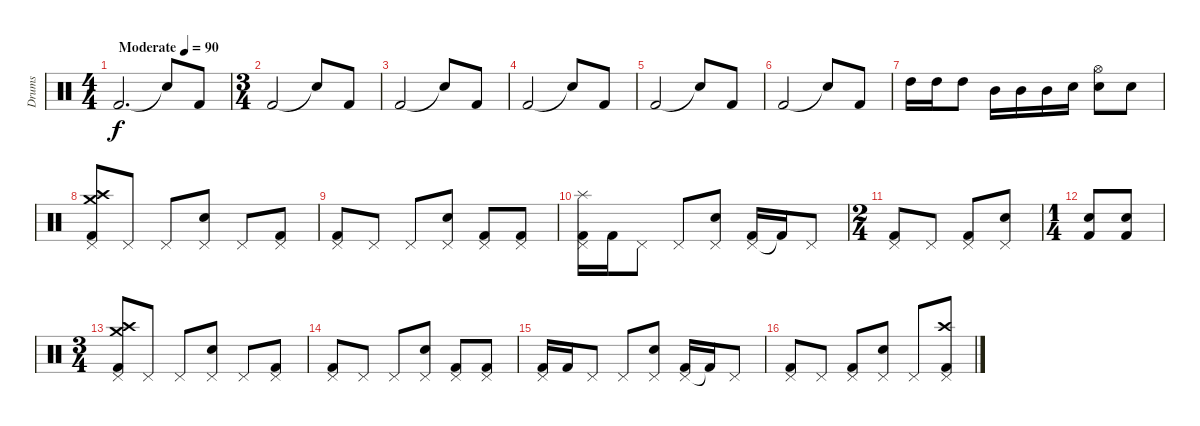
\track ("Drums" "Drums") {instrument percussion}
\staff {score}
\articulation defaults
\ts (4 4)
\tempo (90 "Moderate")
\clef neutral
\ks c "Kick (hit) 2".2{d dy f} "Snare (hit)"{t}.8 "Kick (hit) 2".8
|
\ts (3 4)
"Kick (hit) 2".2 "Snare (hit)"{t}.8 "Kick (hit) 2".8 |
"Kick (hit) 2".2 "Snare (hit)"{t}.8 "Kick (hit) 2".8 |
"Kick (hit) 2".2 "Snare (hit)"{t}.8 "Kick (hit) 2".8 |
"Kick (hit) 2".2 "Snare (hit)"{t}.8 "Kick (hit) 2".8 |
"Kick (hit) 2".2 "Snare (hit)"{t}.8 "Kick (hit) 2".8 |
"High Tom (hit)".16 "High Tom (hit)".16 "High Tom (hit)".8 "Mid Tom (hit)".16 "Mid Tom (hit)".16 "Mid Tom (hit)".16 "Electric Snare (hit)".16 ("Hi-Hat (open)" "Electric Snare (hit)").8 "Electric Snare (hit)".8 |
("Crash medium (hit)" "Crash high (hit)" "Pedal Hi-Hat (hit)" "Kick (hit) 2").8 "Pedal Hi-Hat (hit)".8 "Pedal Hi-Hat (hit)".8 ("Pedal Hi-Hat (hit)" "Electric Snare (hit)").8 "Pedal Hi-Hat (hit)".8 ("Pedal Hi-Hat (hit)" "Kick (hit) 2").8 |
("Pedal Hi-Hat (hit)" "Kick (hit) 2").8 "Pedal Hi-Hat (hit)".8 "Pedal Hi-Hat (hit)".8 ("Pedal Hi-Hat (hit)" "Electric Snare (hit)").8 ("Pedal Hi-Hat (hit)" "Kick (hit) 2").8 ("Pedal Hi-Hat (hit)" "Kick (hit) 2").8 |
("Splash (hit)" "Pedal Hi-Hat (hit)" "Kick (hit) 2").16 "Kick (hit) 2".16 "Pedal Hi-Hat (hit)".8 "Pedal Hi-Hat (hit)".8 ("Pedal Hi-Hat (hit)" "Electric Snare (hit)").8 ("Pedal Hi-Hat (hit)" "Kick (hit) 2").16 "Kick (hit) 2"{t}.16 "Pedal Hi-Hat (hit)".8 |
\ts (2 4)
("Pedal Hi-Hat (hit)" "Kick (hit) 2").8 "Pedal Hi-Hat (hit)".8 ("Pedal Hi-Hat (hit)" "Kick (hit) 2").8 ("Pedal Hi-Hat (hit)" "Electric Snare (hit)").8 |
\ts (1 4)
("Electric Snare (hit)" "Kick (hit) 2").8 ("Electric Snare (hit)" "Kick (hit) 2").8 |
\ts (3 4)
("Crash medium (hit)" "Crash high (hit)" "Pedal Hi-Hat (hit)" "Kick (hit) 2").8 "Pedal Hi-Hat (hit)".8 "Pedal Hi-Hat (hit)".8 ("Pedal Hi-Hat (hit)" "Electric Snare (hit)").8 "Pedal Hi-Hat (hit)".8 ("Pedal Hi-Hat (hit)" "Kick (hit) 2").8 |
("Pedal Hi-Hat (hit)" "Kick (hit) 2").8 "Pedal Hi-Hat (hit)".8 "Pedal Hi-Hat (hit)".8 ("Pedal Hi-Hat (hit)" "Electric Snare (hit)").8 ("Pedal Hi-Hat (hit)" "Kick (hit) 2").8 ("Pedal Hi-Hat (hit)" "Kick (hit) 2").8 |
("Pedal Hi-Hat (hit)" "Kick (hit) 2").16 "Kick (hit) 2".16 "Pedal Hi-Hat (hit)".8 "Pedal Hi-Hat (hit)".8 ("Pedal Hi-Hat (hit)" "Electric Snare (hit)").8 ("Pedal Hi-Hat (hit)" "Kick (hit) 2").16 "Kick (hit) 2"{t}.16 "Pedal Hi-Hat (hit)".8 |
("Pedal Hi-Hat (hit)" "Kick (hit) 2").8 "Pedal Hi-Hat (hit)".8 ("Pedal Hi-Hat (hit)" "Kick (hit) 2").8 ("Pedal Hi-Hat (hit)" "Electric Snare (hit)").8 "Pedal Hi-Hat (hit)".8 ("Crash high (hit)" "Pedal Hi-Hat (hit)" "Kick (hit) 2").8
